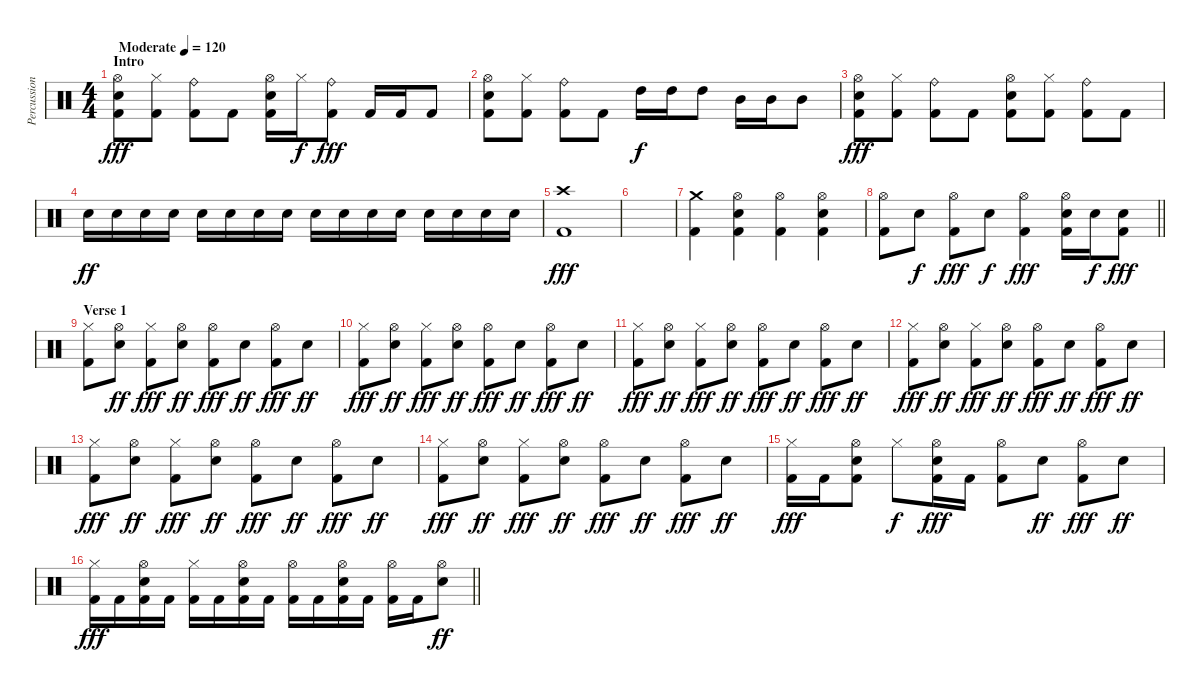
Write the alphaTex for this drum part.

\track ("Percussion" "Percussion") {instrument percussion}
\staff {score}
\articulation defaults
\ts (4 4)
\section ("" "Intro")
\tempo (120 "Moderate")
\clef neutral
\ks c
("Hi-Hat (open)" "Electric Snare (hit)" "Kick (hit) 2").8{dy fff} ("Hi-Hat (closed)" "Kick (hit) 2").8 ("Ride (bell)" "Kick (hit) 2").8 "Kick (hit) 2".8 ("Hi-Hat (open)" "Electric Snare (hit)" "Kick (hit) 2").16 "Hi-Hat (closed)".16{dy f} ("Ride (bell)" "Kick (hit) 2").8{dy fff} "Kick (hit) 2".16 "Kick (hit) 2".16 "Kick (hit) 2".8 |
("Hi-Hat (open)" "Electric Snare (hit)" "Kick (hit) 2").8 ("Hi-Hat (closed)" "Kick (hit) 2").8 ("Ride (bell)" "Kick (hit) 2").8 "Kick (hit) 2".8 "High Tom (hit)".16{dy f} "High Tom (hit)".16 "High Tom (hit)".8 "Mid Tom (hit)".16 "Mid Tom (hit)".16 "Mid Tom (hit)".8 |
("Hi-Hat (open)" "Electric Snare (hit)" "Kick (hit) 2").8{dy fff} ("Hi-Hat (closed)" "Kick (hit) 2").8 ("Ride (bell)" "Kick (hit) 2").8 "Kick (hit) 2".8 ("Hi-Hat (open)" "Electric Snare (hit)" "Kick (hit) 2").8 ("Hi-Hat (closed)" "Kick (hit) 2").8 ("Ride (bell)" "Kick (hit) 2").8 "Kick (hit) 2".8 |
"Electric Snare (hit)".16{dy ff} "Electric Snare (hit)".16 "Electric Snare (hit)".16 "Electric Snare (hit)".16 "Electric Snare (hit)".16 "Electric Snare (hit)".16 "Electric Snare (hit)".16 "Electric Snare (hit)".16 "Electric Snare (hit)".16 "Electric Snare (hit)".16 "Electric Snare (hit)".16 "Electric Snare (hit)".16 "Electric Snare (hit)".16 "Electric Snare (hit)".16 "Electric Snare (hit)".16 "Electric Snare (hit)".16 |
("Crash high (hit)" "Kick (hit) 2").1{dy fff} |
|
("Crash medium (hit)" "Kick (hit) 2").4 ("Hi-Hat (open)" "Electric Snare (hit)" "Kick (hit) 2").4 ("Hi-Hat (open)" "Kick (hit) 2").4 ("Hi-Hat (open)" "Electric Snare (hit)" "Kick (hit) 2").4 |
\barLineRight lightlight
("Hi-Hat (open)" "Kick (hit) 2").8 "Electric Snare (hit)".8{dy f} ("Hi-Hat (open)" "Kick (hit) 2").8{dy fff} "Electric Snare (hit)".8{dy f} ("Hi-Hat (open)" "Kick (hit) 2").4{dy fff} ("Hi-Hat (open)" "Electric Snare (hit)" "Kick (hit) 2").16 "Electric Snare (hit)".16{dy f} ("Electric Snare (hit)" "Kick (hit) 2").8{dy fff} |
\section ("" "Verse 1")
("Hi-Hat (closed)" "Kick (hit) 2").8 ("Hi-Hat (open)" "Electric Snare (hit)").8{dy ff} ("Hi-Hat (closed)" "Kick (hit) 2").8{dy fff} ("Hi-Hat (open)" "Electric Snare (hit)").8{dy ff} ("Hi-Hat (open)" "Kick (hit) 2").8{dy fff} "Electric Snare (hit)".8{dy ff} ("Hi-Hat (open)" "Kick (hit) 2").8{dy fff} "Electric Snare (hit)".8{dy ff} |
("Hi-Hat (closed)" "Kick (hit) 2").8{dy fff} ("Hi-Hat (open)" "Electric Snare (hit)").8{dy ff} ("Hi-Hat (closed)" "Kick (hit) 2").8{dy fff} ("Hi-Hat (open)" "Electric Snare (hit)").8{dy ff} ("Hi-Hat (open)" "Kick (hit) 2").8{dy fff} "Electric Snare (hit)".8{dy ff} ("Hi-Hat (open)" "Kick (hit) 2").8{dy fff} "Electric Snare (hit)".8{dy ff} |
("Hi-Hat (closed)" "Kick (hit) 2").8{dy fff} ("Hi-Hat (open)" "Electric Snare (hit)").8{dy ff} ("Hi-Hat (closed)" "Kick (hit) 2").8{dy fff} ("Hi-Hat (open)" "Electric Snare (hit)").8{dy ff} ("Hi-Hat (open)" "Kick (hit) 2").8{dy fff} "Electric Snare (hit)".8{dy ff} ("Hi-Hat (open)" "Kick (hit) 2").8{dy fff} "Electric Snare (hit)".8{dy ff} |
("Hi-Hat (closed)" "Kick (hit) 2").8{dy fff} ("Hi-Hat (open)" "Electric Snare (hit)").8{dy ff} ("Hi-Hat (closed)" "Kick (hit) 2").8{dy fff} ("Hi-Hat (open)" "Electric Snare (hit)").8{dy ff} ("Hi-Hat (open)" "Kick (hit) 2").8{dy fff} "Electric Snare (hit)".8{dy ff} ("Hi-Hat (open)" "Kick (hit) 2").8{dy fff} "Electric Snare (hit)".8{dy ff} |
("Hi-Hat (closed)" "Kick (hit) 2").8{dy fff} ("Hi-Hat (open)" "Electric Snare (hit)").8{dy ff} ("Hi-Hat (closed)" "Kick (hit) 2").8{dy fff} ("Hi-Hat (open)" "Electric Snare (hit)").8{dy ff} ("Hi-Hat (open)" "Kick (hit) 2").8{dy fff} "Electric Snare (hit)".8{dy ff} ("Hi-Hat (open)" "Kick (hit) 2").8{dy fff} "Electric Snare (hit)".8{dy ff} |
("Hi-Hat (closed)" "Kick (hit) 2").8{dy fff} ("Hi-Hat (open)" "Electric Snare (hit)").8{dy ff} ("Hi-Hat (closed)" "Kick (hit) 2").8{dy fff} ("Hi-Hat (open)" "Electric Snare (hit)").8{dy ff} ("Hi-Hat (open)" "Kick (hit) 2").8{dy fff} "Electric Snare (hit)".8{dy ff} ("Hi-Hat (open)" "Kick (hit) 2").8{dy fff} "Electric Snare (hit)".8{dy ff} |
("Hi-Hat (closed)" "Kick (hit) 2").16{dy fff} "Kick (hit) 2".16 ("Hi-Hat (open)" "Electric Snare (hit)" "Kick (hit) 2").8 "Hi-Hat (closed)".8{dy f} ("Hi-Hat (open)" "Electric Snare (hit)" "Kick (hit) 2").16{dy fff} "Kick (hit) 2".16 ("Hi-Hat (open)" "Kick (hit) 2").8 "Electric Snare (hit)".8{dy ff} ("Hi-Hat (open)" "Kick (hit) 2").8{dy fff} "Electric Snare (hit)".8{dy ff} |
\barLineRight lightlight
("Hi-Hat (closed)" "Kick (hit) 2").16{dy fff} "Kick (hit) 2".16 ("Hi-Hat (open)" "Electric Snare (hit)" "Kick (hit) 2").16 "Kick (hit) 2".16 ("Hi-Hat (closed)" "Kick (hit) 2").16 "Kick (hit) 2".16 ("Hi-Hat (open)" "Electric Snare (hit)" "Kick (hit) 2").16 "Kick (hit) 2".16 ("Hi-Hat (open)" "Kick (hit) 2").16 "Kick (hit) 2".16 ("Hi-Hat (open)" "Electric Snare (hit)" "Kick (hit) 2").16 "Kick (hit) 2".16 ("Hi-Hat (open)" "Kick (hit) 2").16 "Kick (hit) 2".16 ("Hi-Hat (open)" "Electric Snare (hit)").8{dy ff}
